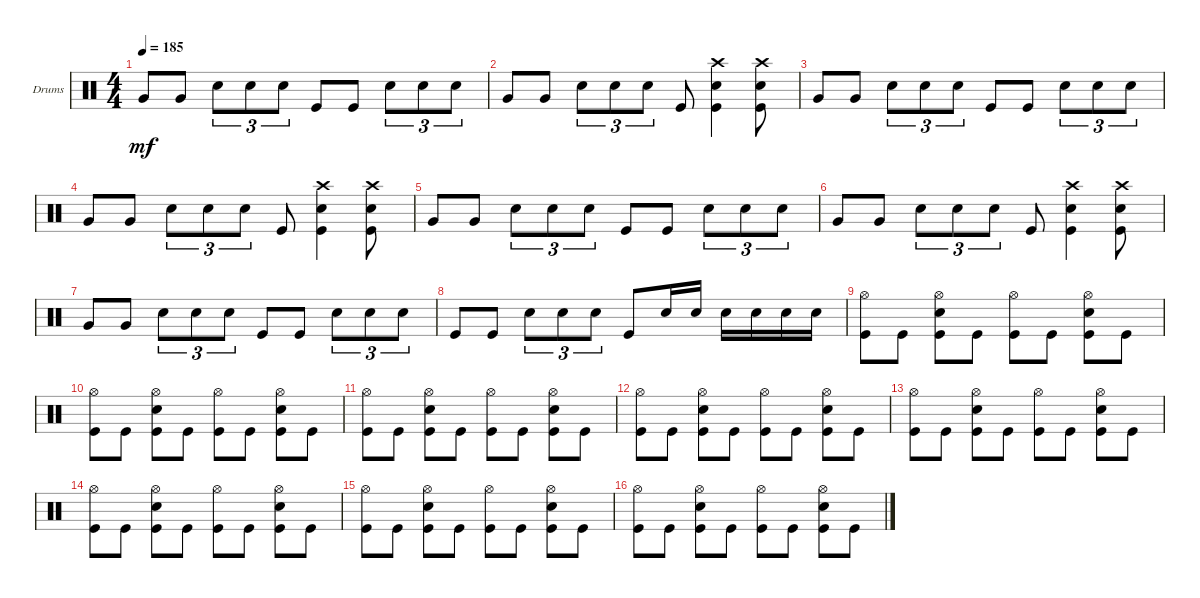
\bracketExtendMode groupsimilarinstruments
\firstSystemTrackNameOrientation horizontal
\otherSystemsTrackNameOrientation horizontal
\track ("Drumkit" "Drums") {instrument percussion}
\staff {score}
\articulation defaults
\ts (4 4)
\tempo 185
\clef neutral
\scale
0.474178
\ks c "Very Low Tom (hit)".8{dy mf} "Very Low Tom (hit)".8 "Snare (hit) 2".8{tu (3 2)} "Snare (hit) 2".8{tu (3 2)} "Snare (hit) 2".8{tu (3 2)} "Kick (hit)".8 "Kick (hit)".8 "Snare (hit) 2".8{tu (3 2)} "Snare (hit) 2".8{tu (3 2)} "Snare (hit) 2".8{tu (3 2)}
|
\scale
0.262911 "Very Low Tom (hit)".8 "Very Low Tom (hit)".8 "Snare (hit) 2".8{tu (3 2)} "Snare (hit) 2".8{tu (3 2)} "Snare (hit) 2".8{tu (3 2)} "Kick (hit)".8 ("Kick (hit)" "Snare (hit) 2" "Crash high (hit)").4 ("Snare (hit) 2" "Kick (hit)" "Crash high (hit)").8 |
\scale
0.262911 "Very Low Tom (hit)".8 "Very Low Tom (hit)".8 "Snare (hit) 2".8{tu (3 2)} "Snare (hit) 2".8{tu (3 2)} "Snare (hit) 2".8{tu (3 2)} "Kick (hit)".8 "Kick (hit)".8 "Snare (hit) 2".8{tu (3 2)} "Snare (hit) 2".8{tu (3 2)} "Snare (hit) 2".8{tu (3 2)} |
\scale
0.333333 "Very Low Tom (hit)".8 "Very Low Tom (hit)".8 "Snare (hit) 2".8{tu (3 2)} "Snare (hit) 2".8{tu (3 2)} "Snare (hit) 2".8{tu (3 2)} "Kick (hit)".8 ("Kick (hit)" "Snare (hit) 2" "Crash high (hit)").4 ("Snare (hit) 2" "Kick (hit)" "Crash high (hit)").8 |
\scale
0.333333 "Very Low Tom (hit)".8 "Very Low Tom (hit)".8 "Snare (hit) 2".8{tu (3 2)} "Snare (hit) 2".8{tu (3 2)} "Snare (hit) 2".8{tu (3 2)} "Kick (hit)".8 "Kick (hit)".8 "Snare (hit) 2".8{tu (3 2)} "Snare (hit) 2".8{tu (3 2)} "Snare (hit) 2".8{tu (3 2)} |
\scale
0.333333 "Very Low Tom (hit)".8 "Very Low Tom (hit)".8 "Snare (hit) 2".8{tu (3 2)} "Snare (hit) 2".8{tu (3 2)} "Snare (hit) 2".8{tu (3 2)} "Kick (hit)".8 ("Kick (hit)" "Snare (hit) 2" "Crash high (hit)").4 ("Snare (hit) 2" "Kick (hit)" "Crash high (hit)").8 |
\scale
0.333333 "Very Low Tom (hit)".8 "Very Low Tom (hit)".8 "Snare (hit) 2".8{tu (3 2)} "Snare (hit) 2".8{tu (3 2)} "Snare (hit) 2".8{tu (3 2)} "Kick (hit)".8 "Kick (hit)".8 "Snare (hit) 2".8{tu (3 2)} "Snare (hit) 2".8{tu (3 2)} "Snare (hit) 2".8{tu (3 2)} |
\scale
0.333333 "Kick (hit)".8 "Kick (hit)".8 "Snare (hit) 2".8{tu (3 2)} "Snare (hit) 2".8{tu (3 2)} "Snare (hit) 2".8{tu (3 2)} "Kick (hit)".8 "Snare (hit) 2".16 "Snare (hit) 2".16 "Snare (hit) 2".16 "Snare (hit) 2".16 "Snare (hit) 2".16 "Snare (hit) 2".16 |
\scale
0.333333 ("Hi-Hat (open)" "Kick (hit)").8 "Kick (hit)".8 ("Kick (hit)" "Snare (hit) 2" "Hi-Hat (open)").8 "Kick (hit)".8 ("Kick (hit)" "Hi-Hat (open)").8 "Kick (hit)".8 ("Kick (hit)" "Hi-Hat (open)" "Snare (hit) 2").8 "Kick (hit)".8 |
\scale
0.333333 ("Hi-Hat (open)" "Kick (hit)").8 "Kick (hit)".8 ("Kick (hit)" "Snare (hit) 2" "Hi-Hat (open)").8 "Kick (hit)".8 ("Kick (hit)" "Hi-Hat (open)").8 "Kick (hit)".8 ("Kick (hit)" "Hi-Hat (open)" "Snare (hit) 2").8 "Kick (hit)".8 |
\scale
0.333333 ("Hi-Hat (open)" "Kick (hit)").8 "Kick (hit)".8 ("Kick (hit)" "Snare (hit) 2" "Hi-Hat (open)").8 "Kick (hit)".8 ("Kick (hit)" "Hi-Hat (open)").8 "Kick (hit)".8 ("Kick (hit)" "Hi-Hat (open)" "Snare (hit) 2").8 "Kick (hit)".8 |
\scale
0.333333 ("Hi-Hat (open)" "Kick (hit)").8 "Kick (hit)".8 ("Kick (hit)" "Snare (hit) 2" "Hi-Hat (open)").8 "Kick (hit)".8 ("Kick (hit)" "Hi-Hat (open)").8 "Kick (hit)".8 ("Kick (hit)" "Hi-Hat (open)" "Snare (hit) 2").8 "Kick (hit)".8 |
\scale
0.333333 ("Hi-Hat (open)" "Kick (hit)").8 "Kick (hit)".8 ("Kick (hit)" "Snare (hit) 2" "Hi-Hat (open)").8 "Kick (hit)".8 ("Kick (hit)" "Hi-Hat (open)").8 "Kick (hit)".8 ("Kick (hit)" "Hi-Hat (open)" "Snare (hit) 2").8 "Kick (hit)".8 |
\scale
0.333333 ("Hi-Hat (open)" "Kick (hit)").8 "Kick (hit)".8 ("Kick (hit)" "Snare (hit) 2" "Hi-Hat (open)").8 "Kick (hit)".8 ("Kick (hit)" "Hi-Hat (open)").8 "Kick (hit)".8 ("Kick (hit)" "Hi-Hat (open)" "Snare (hit) 2").8 "Kick (hit)".8 |
\scale
0.333333 ("Hi-Hat (open)" "Kick (hit)").8 "Kick (hit)".8 ("Kick (hit)" "Snare (hit) 2" "Hi-Hat (open)").8 "Kick (hit)".8 ("Kick (hit)" "Hi-Hat (open)").8 "Kick (hit)".8 ("Kick (hit)" "Hi-Hat (open)" "Snare (hit) 2").8 "Kick (hit)".8 |
\scale
0.333333 ("Hi-Hat (open)" "Kick (hit)").8 "Kick (hit)".8 ("Kick (hit)" "Snare (hit) 2" "Hi-Hat (open)").8 "Kick (hit)".8 ("Kick (hit)" "Hi-Hat (open)").8 "Kick (hit)".8 ("Kick (hit)" "Hi-Hat (open)" "Snare (hit) 2").8 "Kick (hit)".8
